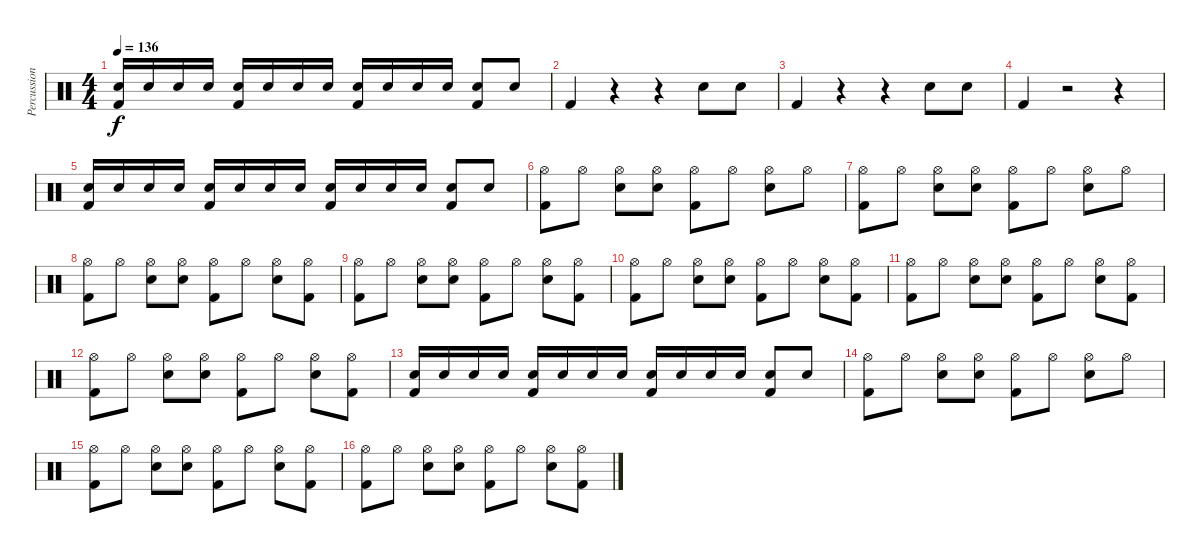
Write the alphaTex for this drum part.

\track ("Percussion" "Percussion") {instrument percussion}
\staff {score}
\articulation defaults
\ts (4 4)
\tempo 136
\clef neutral
\ks c
("Snare (hit) 2" "Kick (hit) 2").16{dy f} "Snare (hit) 2".16 "Snare (hit) 2".16 "Snare (hit) 2".16 ("Snare (hit) 2" "Kick (hit) 2").16 "Snare (hit) 2".16 "Snare (hit) 2".16 "Snare (hit) 2".16 ("Snare (hit) 2" "Kick (hit) 2").16 "Snare (hit) 2".16 "Snare (hit) 2".16 "Snare (hit) 2".16 ("Snare (hit) 2" "Kick (hit) 2").8 "Snare (hit) 2".8 |
"Kick (hit) 2".4 r.4 r.4 "Snare (hit) 2".8 "Snare (hit) 2".8 |
"Kick (hit) 2".4 r.4 r.4 "Snare (hit) 2".8 "Snare (hit) 2".8 |
"Kick (hit) 2".4 r.2 r.4 |
("Snare (hit) 2" "Kick (hit) 2").16 "Snare (hit) 2".16 "Snare (hit) 2".16 "Snare (hit) 2".16 ("Snare (hit) 2" "Kick (hit) 2").16 "Snare (hit) 2".16 "Snare (hit) 2".16 "Snare (hit) 2".16 ("Snare (hit) 2" "Kick (hit) 2").16 "Snare (hit) 2".16 "Snare (hit) 2".16 "Snare (hit) 2".16 ("Snare (hit) 2" "Kick (hit) 2").8 "Snare (hit) 2".8 |
("Hi-Hat (open)" "Kick (hit) 2").8 "Hi-Hat (open)".8 ("Hi-Hat (open)" "Snare (hit) 2").8 ("Hi-Hat (open)" "Snare (hit) 2").8 ("Hi-Hat (open)" "Kick (hit) 2").8 "Hi-Hat (open)".8 ("Hi-Hat (open)" "Snare (hit) 2").8 "Hi-Hat (open)".8 |
("Hi-Hat (open)" "Kick (hit) 2").8 "Hi-Hat (open)".8 ("Hi-Hat (open)" "Snare (hit) 2").8 ("Hi-Hat (open)" "Snare (hit) 2").8 ("Hi-Hat (open)" "Kick (hit) 2").8 "Hi-Hat (open)".8 ("Hi-Hat (open)" "Snare (hit) 2").8 "Hi-Hat (open)".8 |
("Hi-Hat (open)" "Kick (hit) 2").8 "Hi-Hat (open)".8 ("Hi-Hat (open)" "Snare (hit) 2").8 ("Hi-Hat (open)" "Snare (hit) 2").8 ("Hi-Hat (open)" "Kick (hit) 2").8 "Hi-Hat (open)".8 ("Hi-Hat (open)" "Snare (hit) 2").8 ("Hi-Hat (open)" "Kick (hit) 2").8 |
("Hi-Hat (open)" "Kick (hit) 2").8 "Hi-Hat (open)".8 ("Hi-Hat (open)" "Snare (hit) 2").8 ("Hi-Hat (open)" "Snare (hit) 2").8 ("Hi-Hat (open)" "Kick (hit) 2").8 "Hi-Hat (open)".8 ("Hi-Hat (open)" "Snare (hit) 2").8 ("Hi-Hat (open)" "Kick (hit) 2").8 |
("Hi-Hat (open)" "Kick (hit) 2").8 "Hi-Hat (open)".8 ("Hi-Hat (open)" "Snare (hit) 2").8 ("Hi-Hat (open)" "Snare (hit) 2").8 ("Hi-Hat (open)" "Kick (hit) 2").8 "Hi-Hat (open)".8 ("Hi-Hat (open)" "Snare (hit) 2").8 ("Hi-Hat (open)" "Kick (hit) 2").8 |
("Hi-Hat (open)" "Kick (hit) 2").8 "Hi-Hat (open)".8 ("Hi-Hat (open)" "Snare (hit) 2").8 ("Hi-Hat (open)" "Snare (hit) 2").8 ("Hi-Hat (open)" "Kick (hit) 2").8 "Hi-Hat (open)".8 ("Hi-Hat (open)" "Snare (hit) 2").8 ("Hi-Hat (open)" "Kick (hit) 2").8 |
("Hi-Hat (open)" "Kick (hit) 2").8 "Hi-Hat (open)".8 ("Hi-Hat (open)" "Snare (hit) 2").8 ("Hi-Hat (open)" "Snare (hit) 2").8 ("Hi-Hat (open)" "Kick (hit) 2").8 "Hi-Hat (open)".8 ("Hi-Hat (open)" "Snare (hit) 2").8 ("Hi-Hat (open)" "Kick (hit) 2").8 |
("Snare (hit) 2" "Kick (hit) 2").16 "Snare (hit) 2".16 "Snare (hit) 2".16 "Snare (hit) 2".16 ("Snare (hit) 2" "Kick (hit) 2").16 "Snare (hit) 2".16 "Snare (hit) 2".16 "Snare (hit) 2".16 ("Snare (hit) 2" "Kick (hit) 2").16 "Snare (hit) 2".16 "Snare (hit) 2".16 "Snare (hit) 2".16 ("Snare (hit) 2" "Kick (hit) 2").8 "Snare (hit) 2".8 |
("Hi-Hat (open)" "Kick (hit) 2").8 "Hi-Hat (open)".8 ("Hi-Hat (open)" "Snare (hit) 2").8 ("Hi-Hat (open)" "Snare (hit) 2").8 ("Hi-Hat (open)" "Kick (hit) 2").8 "Hi-Hat (open)".8 ("Hi-Hat (open)" "Snare (hit) 2").8 "Hi-Hat (open)".8 |
("Hi-Hat (open)" "Kick (hit) 2").8 "Hi-Hat (open)".8 ("Hi-Hat (open)" "Snare (hit) 2").8 ("Hi-Hat (open)" "Snare (hit) 2").8 ("Hi-Hat (open)" "Kick (hit) 2").8 "Hi-Hat (open)".8 ("Hi-Hat (open)" "Snare (hit) 2").8 ("Hi-Hat (open)" "Kick (hit) 2").8 |
("Hi-Hat (open)" "Kick (hit) 2").8 "Hi-Hat (open)".8 ("Hi-Hat (open)" "Snare (hit) 2").8 ("Hi-Hat (open)" "Snare (hit) 2").8 ("Hi-Hat (open)" "Kick (hit) 2").8 "Hi-Hat (open)".8 ("Hi-Hat (open)" "Snare (hit) 2").8 ("Hi-Hat (open)" "Kick (hit) 2").8
